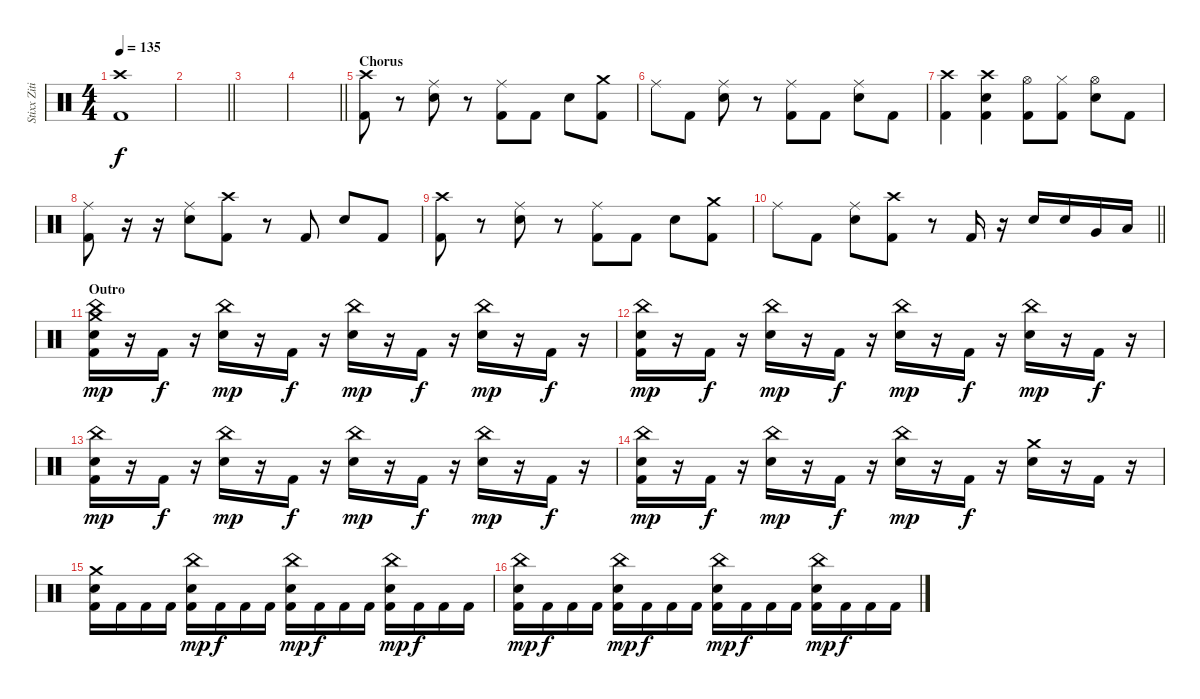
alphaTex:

\track ("Stixx Zitinya Drums" "Stixx Ziti") {instrument percussion}
\staff {score}
\articulation defaults
\ts (4 4)
\tempo 135
\clef neutral
\ks c
("Crash high (hit)" "Kick (hit) 2").1{dy f} |
\barLineRight lightlight
|
|
\barLineRight lightlight
|
\section ("" "Chorus")
("Crash high (hit)" "Kick (hit) 2").8 r.8 ("Ride (middle)" "Snare (hit) 2").8 r.8 ("Ride (middle)" "Kick (hit) 2").8 "Kick (hit) 2".8 "Snare (hit) 2".8 ("Crash medium (hit)" "Kick (hit) 2").8 |
"Ride (middle)".8 "Kick (hit) 2".8 ("Ride (middle)" "Snare (hit) 2").8 r.8 ("Ride (middle)" "Kick (hit) 2").8 "Kick (hit) 2".8 ("Ride (middle)" "Snare (hit) 2").8 "Kick (hit) 2".8 |
("Crash high (hit)" "Kick (hit) 2").4 ("Crash high (hit)" "Snare (hit) 2" "Kick (hit) 2").4 ("Hi-Hat (open)" "Kick (hit) 2").8 ("Hi-Hat (closed)" "Kick (hit) 2").8 ("Hi-Hat (open)" "Snare (hit) 2").8 "Kick (hit) 2".8 |
("Ride (middle)" "Kick (hit) 2").8 r.16 r.16 ("Ride (middle)" "Snare (hit) 2").8 ("Crash high (hit)" "Kick (hit) 2").8 r.8 "Kick (hit) 2".8 "Snare (hit) 2".8 "Kick (hit) 2".8 |
("Crash high (hit)" "Kick (hit) 2").8 r.8 ("Ride (middle)" "Snare (hit) 2").8 r.8 ("Ride (middle)" "Kick (hit) 2").8 "Kick (hit) 2".8 "Snare (hit) 2".8 ("Crash medium (hit)" "Kick (hit) 2").8 |
\barLineRight lightlight "Ride (middle)".8 "Kick (hit) 2".8
("Ride (middle)" "Snare (hit) 2").8 ("Crash high (hit)" "Kick (hit) 2").8 r.8 "Kick (hit) 2".16 r.16 "Snare (hit) 2".16 "Snare (hit) 2".16 "Very Low Tom (hit)".16 "Low Floor Tom (hit)".16 |
\section ("" "Outro")
("Crash medium (hit)" "China (hit)" "Snare (hit) 2" "Kick (hit) 2").16{dy mp} r.16 "Kick (hit) 2".16{dy f} r.16 ("China (hit)" "Snare (hit) 2").16{dy mp} r.16 "Kick (hit) 2".16{dy f} r.16 ("China (hit)" "Snare (hit) 2").16{dy mp} r.16 "Kick (hit) 2".16{dy f} r.16 ("China (hit)" "Snare (hit) 2").16{dy mp} r.16 "Kick (hit) 2".16{dy f} r.16 |
("China (hit)" "Snare (hit) 2" "Kick (hit) 2").16{dy mp} r.16 "Kick (hit) 2".16{dy f} r.16 ("China (hit)" "Snare (hit) 2").16{dy mp} r.16 "Kick (hit) 2".16{dy f} r.16 ("China (hit)" "Snare (hit) 2").16{dy mp} r.16 "Kick (hit) 2".16{dy f} r.16 ("China (hit)" "Snare (hit) 2").16{dy mp} r.16 "Kick (hit) 2".16{dy f} r.16 |
("China (hit)" "Snare (hit) 2" "Kick (hit) 2").16{dy mp} r.16 "Kick (hit) 2".16{dy f} r.16 ("China (hit)" "Snare (hit) 2").16{dy mp} r.16 "Kick (hit) 2".16{dy f} r.16 ("China (hit)" "Snare (hit) 2").16{dy mp} r.16 "Kick (hit) 2".16{dy f} r.16 ("China (hit)" "Snare (hit) 2").16{dy mp} r.16 "Kick (hit) 2".16{dy f} r.16 |
("China (hit)" "Snare (hit) 2" "Kick (hit) 2").16{dy mp} r.16 "Kick (hit) 2".16{dy f} r.16 ("China (hit)" "Snare (hit) 2").16{dy mp} r.16 "Kick (hit) 2".16{dy f} r.16 ("China (hit)" "Snare (hit) 2").16{dy mp} r.16 "Kick (hit) 2".16{dy f} r.16 ("Crash medium (hit)" "Snare (hit) 2").16 r.16 "Kick (hit) 2".16 r.16 |
("Crash medium (hit)" "Snare (hit) 2" "Kick (hit) 2").16 "Kick (hit) 2".16 "Kick (hit) 2".16 "Kick (hit) 2".16 ("China (hit)" "Snare (hit) 2" "Kick (hit) 2").16{dy mp} "Kick (hit) 2".16{dy f} "Kick (hit) 2".16 "Kick (hit) 2".16 ("China (hit)" "Snare (hit) 2" "Kick (hit) 2").16{dy mp} "Kick (hit) 2".16{dy f} "Kick (hit) 2".16 "Kick (hit) 2".16 ("China (hit)" "Snare (hit) 2" "Kick (hit) 2").16{dy mp} "Kick (hit) 2".16{dy f} "Kick (hit) 2".16 "Kick (hit) 2".16 |
("China (hit)" "Snare (hit) 2" "Kick (hit) 2").16{dy mp} "Kick (hit) 2".16{dy f} "Kick (hit) 2".16 "Kick (hit) 2".16 ("China (hit)" "Snare (hit) 2" "Kick (hit) 2").16{dy mp} "Kick (hit) 2".16{dy f} "Kick (hit) 2".16 "Kick (hit) 2".16 ("China (hit)" "Snare (hit) 2" "Kick (hit) 2").16{dy mp} "Kick (hit) 2".16{dy f} "Kick (hit) 2".16 "Kick (hit) 2".16 ("China (hit)" "Snare (hit) 2" "Kick (hit) 2").16{dy mp} "Kick (hit) 2".16{dy f} "Kick (hit) 2".16 "Kick (hit) 2".16
